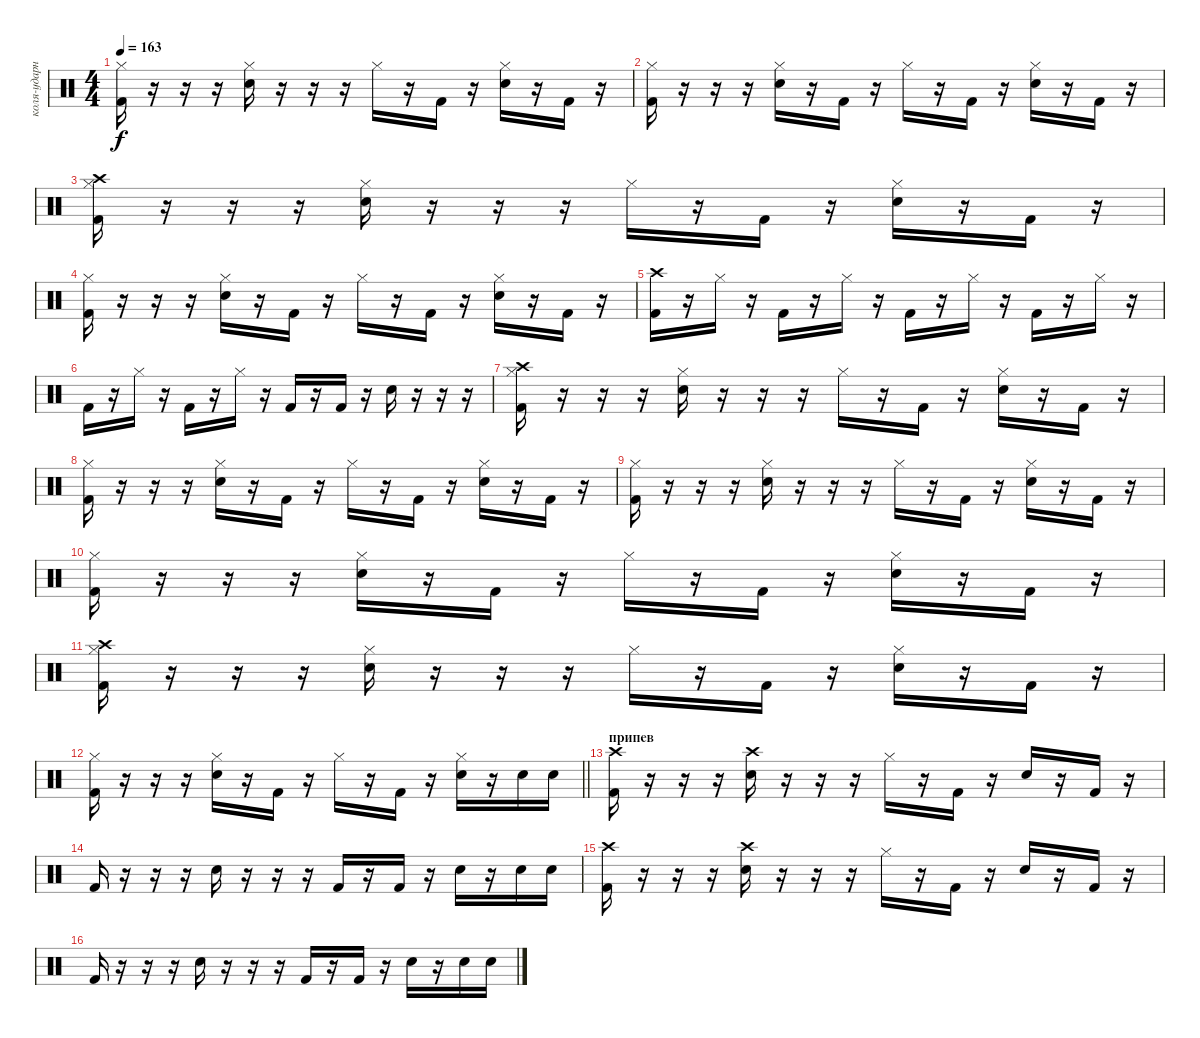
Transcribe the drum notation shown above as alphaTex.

\track ("коля-ударные" "коля-ударн") {instrument percussion}
\staff {score}
\articulation defaults
\ts (4 4)
\tempo 163
\clef neutral
\ks c
("Kick (hit) 2" "Hi-Hat (closed)").16{dy f} r.16 r.16 r.16 ("Electric Snare (hit)" "Hi-Hat (closed)").16 r.16 r.16 r.16 "Hi-Hat (closed)".16 r.16 "Kick (hit) 2".16 r.16 ("Electric Snare (hit)" "Hi-Hat (closed)").16 r.16 "Kick (hit) 2".16 r.16 |
("Kick (hit) 2" "Hi-Hat (closed)").16 r.16 r.16 r.16 ("Electric Snare (hit)" "Hi-Hat (closed)").16 r.16 "Kick (hit) 2".16 r.16 "Hi-Hat (closed)".16 r.16 "Kick (hit) 2".16 r.16 ("Electric Snare (hit)" "Hi-Hat (closed)").16 r.16 "Kick (hit) 2".16 r.16 |
("Kick (hit) 2" "Crash high (hit)" "Hi-Hat (closed)").16 r.16 r.16 r.16 ("Electric Snare (hit)" "Hi-Hat (closed)").16 r.16 r.16 r.16 "Hi-Hat (closed)".16 r.16 "Kick (hit) 2".16 r.16 ("Electric Snare (hit)" "Hi-Hat (closed)").16 r.16 "Kick (hit) 2".16 r.16 |
("Kick (hit) 2" "Hi-Hat (closed)").16 r.16 r.16 r.16 ("Electric Snare (hit)" "Hi-Hat (closed)").16 r.16 "Kick (hit) 2".16 r.16 "Hi-Hat (closed)".16 r.16 "Kick (hit) 2".16 r.16 ("Electric Snare (hit)" "Hi-Hat (closed)").16 r.16 "Kick (hit) 2".16 r.16 |
("Kick (hit) 2" "Crash high (hit)").16 r.16 "Hi-Hat (closed)".16 r.16 "Kick (hit) 2".16 r.16 "Hi-Hat (closed)".16 r.16 "Kick (hit) 2".16 r.16 "Hi-Hat (closed)".16 r.16 "Kick (hit) 2".16 r.16 "Hi-Hat (closed)".16 r.16 |
"Kick (hit) 2".16 r.16 "Hi-Hat (closed)".16 r.16 "Kick (hit) 2".16 r.16 "Hi-Hat (closed)".16 r.16 "Kick (hit) 2".16 r.16 "Kick (hit) 2".16 r.16 "Electric Snare (hit)".16 r.16 r.16 r.16 |
("Kick (hit) 2" "Crash high (hit)" "Hi-Hat (closed)").16 r.16 r.16 r.16 ("Electric Snare (hit)" "Hi-Hat (closed)").16 r.16 r.16 r.16 "Hi-Hat (closed)".16 r.16 "Kick (hit) 2".16 r.16 ("Electric Snare (hit)" "Hi-Hat (closed)").16 r.16 "Kick (hit) 2".16 r.16 |
("Kick (hit) 2" "Hi-Hat (closed)").16 r.16 r.16 r.16 ("Electric Snare (hit)" "Hi-Hat (closed)").16 r.16 "Kick (hit) 2".16 r.16 "Hi-Hat (closed)".16 r.16 "Kick (hit) 2".16 r.16 ("Electric Snare (hit)" "Hi-Hat (closed)").16 r.16 "Kick (hit) 2".16 r.16 |
("Kick (hit) 2" "Hi-Hat (closed)").16 r.16 r.16 r.16 ("Electric Snare (hit)" "Hi-Hat (closed)").16 r.16 r.16 r.16 "Hi-Hat (closed)".16 r.16 "Kick (hit) 2".16 r.16 ("Electric Snare (hit)" "Hi-Hat (closed)").16 r.16 "Kick (hit) 2".16 r.16 |
("Kick (hit) 2" "Hi-Hat (closed)").16 r.16 r.16 r.16 ("Electric Snare (hit)" "Hi-Hat (closed)").16 r.16 "Kick (hit) 2".16 r.16 "Hi-Hat (closed)".16 r.16 "Kick (hit) 2".16 r.16 ("Electric Snare (hit)" "Hi-Hat (closed)").16 r.16 "Kick (hit) 2".16 r.16 |
("Kick (hit) 2" "Crash high (hit)" "Hi-Hat (closed)").16 r.16 r.16 r.16 ("Electric Snare (hit)" "Hi-Hat (closed)").16 r.16 r.16 r.16 "Hi-Hat (closed)".16 r.16 "Kick (hit) 2".16 r.16 ("Electric Snare (hit)" "Hi-Hat (closed)").16 r.16 "Kick (hit) 2".16 r.16 |
\barLineRight lightlight
("Kick (hit) 2" "Hi-Hat (closed)").16 r.16 r.16 r.16 ("Electric Snare (hit)" "Hi-Hat (closed)").16 r.16 "Kick (hit) 2".16 r.16 "Hi-Hat (closed)".16 r.16 "Kick (hit) 2".16 r.16 ("Electric Snare (hit)" "Hi-Hat (closed)").16 r.16 "Electric Snare (hit)".16 "Electric Snare (hit)".16 |
\section ("" "припев")
("Kick (hit) 2" "Crash high (hit)").16 r.16 r.16 r.16 ("Electric Snare (hit)" "Crash high (hit)").16 r.16 r.16 r.16 "Hi-Hat (closed)".16 r.16 "Kick (hit) 2".16 r.16 "Electric Snare (hit)".16 r.16 "Kick (hit) 2".16 r.16 |
"Kick (hit) 2".16 r.16 r.16 r.16 "Electric Snare (hit)".16 r.16 r.16 r.16 "Kick (hit) 2".16 r.16 "Kick (hit) 2".16 r.16 "Electric Snare (hit)".16 r.16 "Electric Snare (hit)".16 "Electric Snare (hit)".16 |
("Kick (hit) 2" "Crash high (hit)").16 r.16 r.16 r.16 ("Electric Snare (hit)" "Crash high (hit)").16 r.16 r.16 r.16 "Hi-Hat (closed)".16 r.16 "Kick (hit) 2".16 r.16 "Electric Snare (hit)".16 r.16 "Kick (hit) 2".16 r.16 |
"Kick (hit) 2".16 r.16 r.16 r.16 "Electric Snare (hit)".16 r.16 r.16 r.16 "Kick (hit) 2".16 r.16 "Kick (hit) 2".16 r.16 "Electric Snare (hit)".16 r.16 "Electric Snare (hit)".16 "Electric Snare (hit)".16
